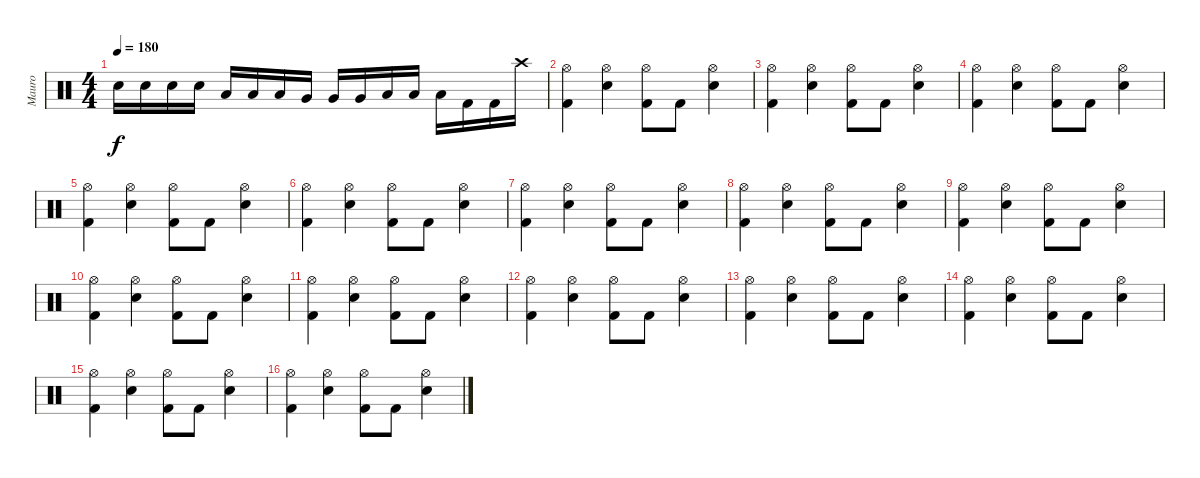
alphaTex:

\track ("Mauro" "Mauro") {instrument percussion}
\staff {score}
\articulation defaults
\ts (4 4)
\tempo 180
\clef neutral
\ks c "Snare (hit) 2".16{dy f} "Snare (hit) 2".16 "Snare (hit) 2".16 "Snare (hit) 2".16 "Low Tom (hit)".16 "Low Tom (hit)".16 "Low Tom (hit)".16 "Very Low Tom (hit)".16 "Very Low Tom (hit)".16 "Very Low Tom (hit)".16 "Low Floor Tom (hit)".16 "Low Floor Tom (hit)".16 "Low Floor Tom (hit)".16 "Kick (hit) 2".16 "Kick (hit) 2".16 "Crash high (hit)".16
|
("Hi-Hat (open)" "Kick (hit) 2").4 ("Hi-Hat (open)" "Snare (hit) 2").4 ("Hi-Hat (open)" "Kick (hit) 2").8 "Kick (hit) 2".8 ("Hi-Hat (open)" "Snare (hit) 2").4 |
("Hi-Hat (open)" "Kick (hit) 2").4 ("Hi-Hat (open)" "Snare (hit) 2").4 ("Hi-Hat (open)" "Kick (hit) 2").8 "Kick (hit) 2".8 ("Hi-Hat (open)" "Snare (hit) 2").4 |
("Hi-Hat (open)" "Kick (hit) 2").4 ("Hi-Hat (open)" "Snare (hit) 2").4 ("Hi-Hat (open)" "Kick (hit) 2").8 "Kick (hit) 2".8 ("Hi-Hat (open)" "Snare (hit) 2").4 |
("Hi-Hat (open)" "Kick (hit) 2").4 ("Hi-Hat (open)" "Snare (hit) 2").4 ("Hi-Hat (open)" "Kick (hit) 2").8 "Kick (hit) 2".8 ("Hi-Hat (open)" "Snare (hit) 2").4 |
("Hi-Hat (open)" "Kick (hit) 2").4 ("Hi-Hat (open)" "Snare (hit) 2").4 ("Hi-Hat (open)" "Kick (hit) 2").8 "Kick (hit) 2".8 ("Hi-Hat (open)" "Snare (hit) 2").4 |
("Hi-Hat (open)" "Kick (hit) 2").4 ("Hi-Hat (open)" "Snare (hit) 2").4 ("Hi-Hat (open)" "Kick (hit) 2").8 "Kick (hit) 2".8 ("Hi-Hat (open)" "Snare (hit) 2").4 |
("Hi-Hat (open)" "Kick (hit) 2").4 ("Hi-Hat (open)" "Snare (hit) 2").4 ("Hi-Hat (open)" "Kick (hit) 2").8 "Kick (hit) 2".8 ("Hi-Hat (open)" "Snare (hit) 2").4 |
("Hi-Hat (open)" "Kick (hit) 2").4 ("Hi-Hat (open)" "Snare (hit) 2").4 ("Hi-Hat (open)" "Kick (hit) 2").8 "Kick (hit) 2".8 ("Hi-Hat (open)" "Snare (hit) 2").4 |
("Hi-Hat (open)" "Kick (hit) 2").4 ("Hi-Hat (open)" "Snare (hit) 2").4 ("Hi-Hat (open)" "Kick (hit) 2").8 "Kick (hit) 2".8 ("Hi-Hat (open)" "Snare (hit) 2").4 |
("Hi-Hat (open)" "Kick (hit) 2").4 ("Hi-Hat (open)" "Snare (hit) 2").4 ("Hi-Hat (open)" "Kick (hit) 2").8 "Kick (hit) 2".8 ("Hi-Hat (open)" "Snare (hit) 2").4 |
("Hi-Hat (open)" "Kick (hit) 2").4 ("Hi-Hat (open)" "Snare (hit) 2").4 ("Hi-Hat (open)" "Kick (hit) 2").8 "Kick (hit) 2".8 ("Hi-Hat (open)" "Snare (hit) 2").4 |
("Hi-Hat (open)" "Kick (hit) 2").4 ("Hi-Hat (open)" "Snare (hit) 2").4 ("Hi-Hat (open)" "Kick (hit) 2").8 "Kick (hit) 2".8 ("Hi-Hat (open)" "Snare (hit) 2").4 |
("Hi-Hat (open)" "Kick (hit) 2").4 ("Hi-Hat (open)" "Snare (hit) 2").4 ("Hi-Hat (open)" "Kick (hit) 2").8 "Kick (hit) 2".8 ("Hi-Hat (open)" "Snare (hit) 2").4 |
("Hi-Hat (open)" "Kick (hit) 2").4 ("Hi-Hat (open)" "Snare (hit) 2").4 ("Hi-Hat (open)" "Kick (hit) 2").8 "Kick (hit) 2".8 ("Hi-Hat (open)" "Snare (hit) 2").4 |
("Hi-Hat (open)" "Kick (hit) 2").4 ("Hi-Hat (open)" "Snare (hit) 2").4 ("Hi-Hat (open)" "Kick (hit) 2").8 "Kick (hit) 2".8 ("Hi-Hat (open)" "Snare (hit) 2").4
